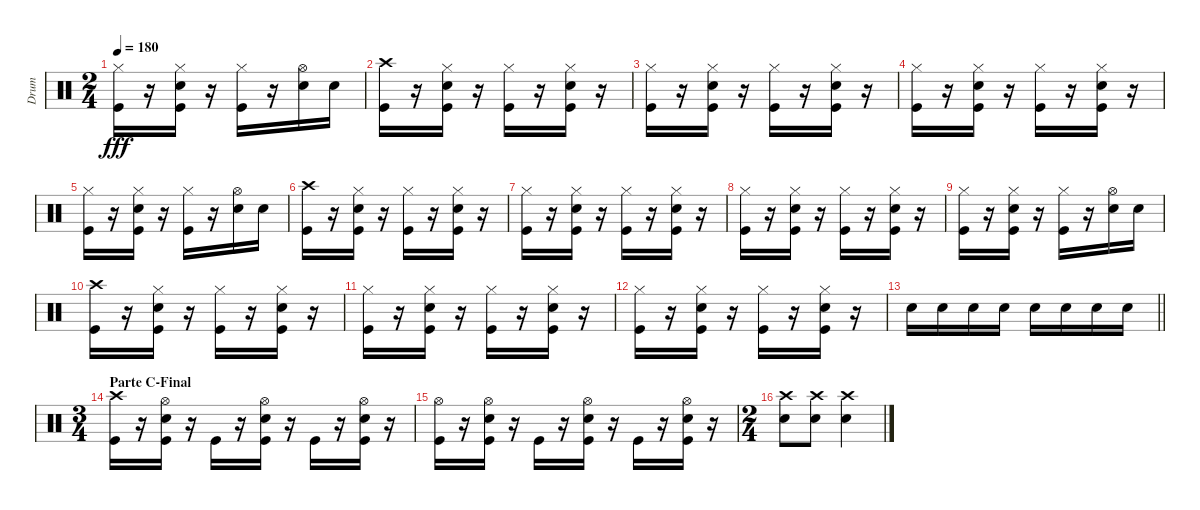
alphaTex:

\track ("Drum" "Drum") {instrument percussion}
\staff {score}
\articulation defaults
\ts (2 4)
\tempo 180
\clef neutral
\ks c
("Hi-Hat (closed)" "Kick (hit)").16{dy fff} r.16 ("Hi-Hat (closed)" "Snare (hit) 2" "Kick (hit)").16 r.16 ("Hi-Hat (closed)" "Kick (hit)").16 r.16 ("Hi-Hat (open)" "Snare (hit) 2").16 "Snare (hit) 2".16 |
("Crash high (hit)" "Kick (hit)").16 r.16 ("Hi-Hat (closed)" "Snare (hit) 2" "Kick (hit)").16 r.16 ("Hi-Hat (closed)" "Kick (hit)").16 r.16 ("Hi-Hat (closed)" "Snare (hit) 2" "Kick (hit)").16 r.16 |
("Hi-Hat (closed)" "Kick (hit)").16 r.16 ("Hi-Hat (closed)" "Snare (hit) 2" "Kick (hit)").16 r.16 ("Hi-Hat (closed)" "Kick (hit)").16 r.16 ("Hi-Hat (closed)" "Snare (hit) 2" "Kick (hit)").16 r.16 |
("Hi-Hat (closed)" "Kick (hit)").16 r.16 ("Hi-Hat (closed)" "Snare (hit) 2" "Kick (hit)").16 r.16 ("Hi-Hat (closed)" "Kick (hit)").16 r.16 ("Hi-Hat (closed)" "Snare (hit) 2" "Kick (hit)").16 r.16 |
("Hi-Hat (closed)" "Kick (hit)").16 r.16 ("Hi-Hat (closed)" "Snare (hit) 2" "Kick (hit)").16 r.16 ("Hi-Hat (closed)" "Kick (hit)").16 r.16 ("Hi-Hat (open)" "Snare (hit) 2").16 "Snare (hit) 2".16 |
("Crash high (hit)" "Kick (hit)").16 r.16 ("Hi-Hat (closed)" "Snare (hit) 2" "Kick (hit)").16 r.16 ("Hi-Hat (closed)" "Kick (hit)").16 r.16 ("Hi-Hat (closed)" "Snare (hit) 2" "Kick (hit)").16 r.16 |
("Hi-Hat (closed)" "Kick (hit)").16 r.16 ("Hi-Hat (closed)" "Snare (hit) 2" "Kick (hit)").16 r.16 ("Hi-Hat (closed)" "Kick (hit)").16 r.16 ("Hi-Hat (closed)" "Snare (hit) 2" "Kick (hit)").16 r.16 |
("Hi-Hat (closed)" "Kick (hit)").16 r.16 ("Hi-Hat (closed)" "Snare (hit) 2" "Kick (hit)").16 r.16 ("Hi-Hat (closed)" "Kick (hit)").16 r.16 ("Hi-Hat (closed)" "Snare (hit) 2" "Kick (hit)").16 r.16 |
("Hi-Hat (closed)" "Kick (hit)").16 r.16 ("Hi-Hat (closed)" "Snare (hit) 2" "Kick (hit)").16 r.16 ("Hi-Hat (closed)" "Kick (hit)").16 r.16 ("Hi-Hat (open)" "Snare (hit) 2").16 "Snare (hit) 2".16 |
("Crash high (hit)" "Kick (hit)").16 r.16 ("Hi-Hat (closed)" "Snare (hit) 2" "Kick (hit)").16 r.16 ("Hi-Hat (closed)" "Kick (hit)").16 r.16 ("Hi-Hat (closed)" "Snare (hit) 2" "Kick (hit)").16 r.16 |
("Hi-Hat (closed)" "Kick (hit)").16 r.16 ("Hi-Hat (closed)" "Snare (hit) 2" "Kick (hit)").16 r.16 ("Hi-Hat (closed)" "Kick (hit)").16 r.16 ("Hi-Hat (closed)" "Snare (hit) 2" "Kick (hit)").16 r.16 |
("Hi-Hat (closed)" "Kick (hit)").16 r.16 ("Hi-Hat (closed)" "Snare (hit) 2" "Kick (hit)").16 r.16 ("Hi-Hat (closed)" "Kick (hit)").16 r.16 ("Hi-Hat (closed)" "Snare (hit) 2" "Kick (hit)").16 r.16 |
\barLineRight lightlight "Snare (hit) 2".16 "Snare (hit) 2".16 "Snare (hit) 2".16 "Snare (hit) 2".16 "Snare (hit) 2".16 "Snare (hit) 2".16 "Snare (hit) 2".16 "Snare (hit) 2".16
|
\ts (3 4)
\section ("" "Parte C-Final")
("Crash high (hit)" "Kick (hit)").16 r.16 ("Hi-Hat (open)" "Snare (hit) 2" "Kick (hit)").16 r.16 "Kick (hit)".16 r.16 ("Hi-Hat (open)" "Snare (hit) 2" "Kick (hit)").16 r.16 "Kick (hit)".16 r.16 ("Hi-Hat (open)" "Snare (hit) 2" "Kick (hit)").16 r.16 |
("Hi-Hat (open)" "Kick (hit)").16 r.16 ("Hi-Hat (open)" "Snare (hit) 2" "Kick (hit)").16 r.16 "Kick (hit)".16 r.16 ("Hi-Hat (open)" "Snare (hit) 2" "Kick (hit)").16 r.16 "Kick (hit)".16 r.16 ("Hi-Hat (open)" "Snare (hit) 2" "Kick (hit)").16 r.16 |
\ts (2 4)
("Crash high (hit)" "Snare (hit) 2").8 ("Crash high (hit)" "Snare (hit) 2").8 ("Crash high (hit)" "Snare (hit) 2").4
